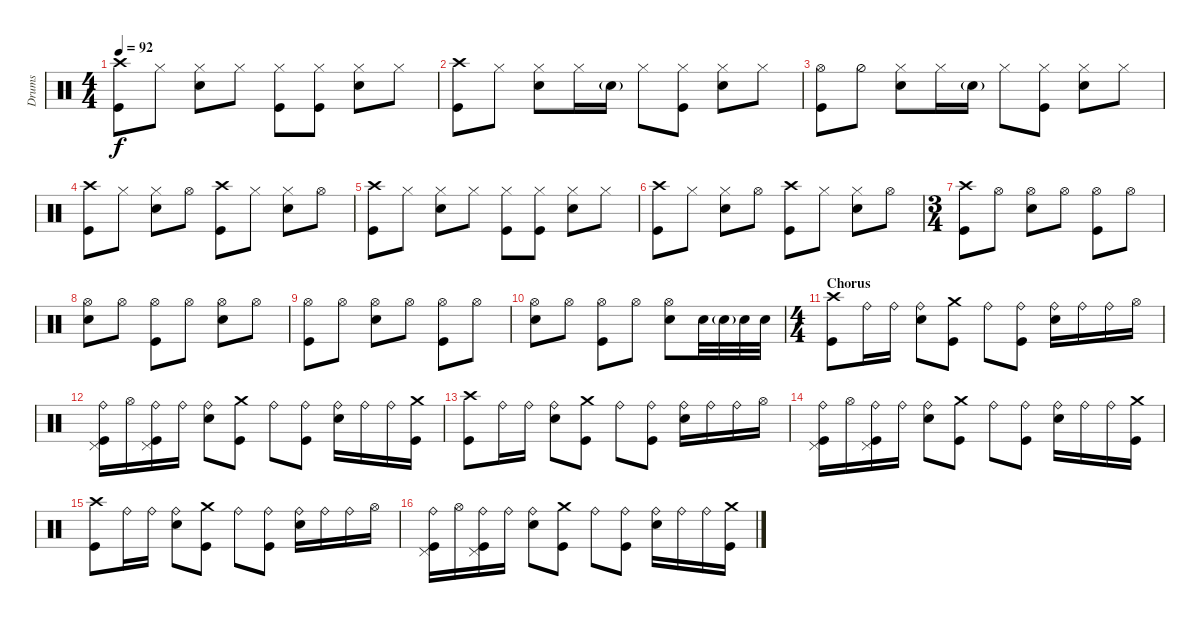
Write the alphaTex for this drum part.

\track ("Drums" "Drums") {instrument percussion}
\staff {score}
\articulation defaults
\ts (4 4)
\tempo 92
\clef neutral
\ks c
("Kick (hit)" "Crash high (hit)").8{dy f} "Hi-Hat (closed)".8 ("Hi-Hat (closed)" "Snare (hit) 2").8 "Hi-Hat (closed)".8 ("Kick (hit)" "Hi-Hat (closed)").8 ("Hi-Hat (closed)" "Kick (hit)").8 ("Hi-Hat (closed)" "Snare (hit) 2").8 "Hi-Hat (closed)".8 |
("Kick (hit)" "Crash high (hit)").8 "Hi-Hat (closed)".8 ("Hi-Hat (closed)" "Snare (hit) 2").8 "Hi-Hat (closed)".16 "Snare (hit) 2"{g}.16 "Hi-Hat (closed)".8 ("Hi-Hat (closed)" "Kick (hit)").8 ("Hi-Hat (closed)" "Snare (hit) 2").8 "Hi-Hat (closed)".8 |
("Kick (hit)" "Hi-Hat (open)").8 "Hi-Hat (half)".8 ("Hi-Hat (closed)" "Snare (hit) 2").8 "Hi-Hat (closed)".16 "Snare (hit) 2"{g}.16 "Hi-Hat (closed)".8 ("Hi-Hat (closed)" "Kick (hit)").8 ("Hi-Hat (closed)" "Snare (hit) 2").8 "Hi-Hat (closed)".8 |
("Kick (hit)" "Crash high (hit)").8 "Hi-Hat (closed)".8 ("Hi-Hat (closed)" "Snare (hit) 2").8 "Hi-Hat (open)".8 ("Kick (hit)" "Crash high (hit)").8 "Hi-Hat (closed)".8 ("Hi-Hat (closed)" "Snare (hit) 2").8 "Hi-Hat (open)".8 |
("Kick (hit)" "Crash high (hit)").8 "Hi-Hat (closed)".8 ("Hi-Hat (closed)" "Snare (hit) 2").8 "Hi-Hat (closed)".8 ("Kick (hit)" "Hi-Hat (closed)").8 ("Hi-Hat (closed)" "Kick (hit)").8 ("Hi-Hat (closed)" "Snare (hit) 2").8 "Hi-Hat (closed)".8 |
("Kick (hit)" "Crash high (hit)").8 "Hi-Hat (closed)".8 ("Hi-Hat (closed)" "Snare (hit) 2").8 "Hi-Hat (open)".8 ("Kick (hit)" "Crash high (hit)").8 "Hi-Hat (closed)".8 ("Hi-Hat (closed)" "Snare (hit) 2").8 "Hi-Hat (open)".8 |
\ts (3 4)
("Kick (hit)" "Crash high (hit)").8 "Hi-Hat (open)".8 ("Hi-Hat (open)" "Snare (hit) 2").8 "Hi-Hat (open)".8 ("Hi-Hat (open)" "Kick (hit)").8 "Hi-Hat (open)".8 |
("Hi-Hat (open)" "Snare (hit) 2").8 "Hi-Hat (open)".8 ("Hi-Hat (open)" "Kick (hit)").8 "Hi-Hat (open)".8 ("Hi-Hat (open)" "Snare (hit) 2").8 "Hi-Hat (open)".8 |
("Kick (hit)" "Hi-Hat (open)").8 "Hi-Hat (open)".8 ("Hi-Hat (open)" "Snare (hit) 2").8 "Hi-Hat (open)".8 ("Hi-Hat (open)" "Kick (hit)").8 "Hi-Hat (open)".8 |
("Hi-Hat (open)" "Snare (hit) 2").8 "Hi-Hat (open)".8 ("Hi-Hat (open)" "Kick (hit)").8 "Hi-Hat (open)".8 ("Hi-Hat (open)" "Snare (hit) 2").8 "Snare (hit) 2".32 "Snare (hit) 2"{g}.32 "Snare (hit) 2".32 "Snare (hit) 2".32 |
\ts (4 4)
\section ("" "Chorus")
("Kick (hit)" "Crash high (hit)").8 "Ride (bell)".16 "Ride (bell)".16 ("Ride (bell)" "Snare (hit) 2").8 ("Crash medium (hit)" "Kick (hit)").8 "Ride (bell)".8 ("Ride (bell)" "Kick (hit)").8 ("Ride (bell)" "Snare (hit) 2").16 "Ride (bell)".16 "Ride (bell)".16 "Hi-Hat (open)".16 |
("Ride (bell)" "Pedal Hi-Hat (hit)" "Kick (hit)").16 "Hi-Hat (open)".16 ("Ride (bell)" "Pedal Hi-Hat (hit)" "Kick (hit)").16 "Ride (bell)".16 ("Snare (hit) 2" "Ride (bell)").8 ("Crash medium (hit)" "Kick (hit)").8 "Ride (bell)".8 ("Ride (bell)" "Kick (hit)").8 ("Snare (hit) 2" "Ride (bell)").16 "Ride (bell)".16 "Ride (bell)".16 ("Crash medium (hit)" "Kick (hit)").16 |
("Kick (hit)" "Crash high (hit)").8 "Ride (bell)".16 "Ride (bell)".16 ("Ride (bell)" "Snare (hit) 2").8 ("Crash medium (hit)" "Kick (hit)").8 "Ride (bell)".8 ("Ride (bell)" "Kick (hit)").8 ("Ride (bell)" "Snare (hit) 2").16 "Ride (bell)".16 "Ride (bell)".16 "Hi-Hat (open)".16 |
("Ride (bell)" "Pedal Hi-Hat (hit)" "Kick (hit)").16 "Hi-Hat (open)".16 ("Ride (bell)" "Pedal Hi-Hat (hit)" "Kick (hit)").16 "Ride (bell)".16 ("Snare (hit) 2" "Ride (bell)").8 ("Crash medium (hit)" "Kick (hit)").8 "Ride (bell)".8 ("Ride (bell)" "Kick (hit)").8 ("Snare (hit) 2" "Ride (bell)").16 "Ride (bell)".16 "Ride (bell)".16 ("Crash medium (hit)" "Kick (hit)").16 |
("Kick (hit)" "Crash high (hit)").8 "Ride (bell)".16 "Ride (bell)".16 ("Ride (bell)" "Snare (hit) 2").8 ("Crash medium (hit)" "Kick (hit)").8 "Ride (bell)".8 ("Ride (bell)" "Kick (hit)").8 ("Ride (bell)" "Snare (hit) 2").16 "Ride (bell)".16 "Ride (bell)".16 "Hi-Hat (open)".16 |
("Ride (bell)" "Pedal Hi-Hat (hit)" "Kick (hit)").16 "Hi-Hat (open)".16 ("Ride (bell)" "Pedal Hi-Hat (hit)" "Kick (hit)").16 "Ride (bell)".16 ("Snare (hit) 2" "Ride (bell)").8 ("Crash medium (hit)" "Kick (hit)").8 "Ride (bell)".8 ("Ride (bell)" "Kick (hit)").8 ("Snare (hit) 2" "Ride (bell)").16 "Ride (bell)".16 "Ride (bell)".16 ("Crash medium (hit)" "Kick (hit)").16
